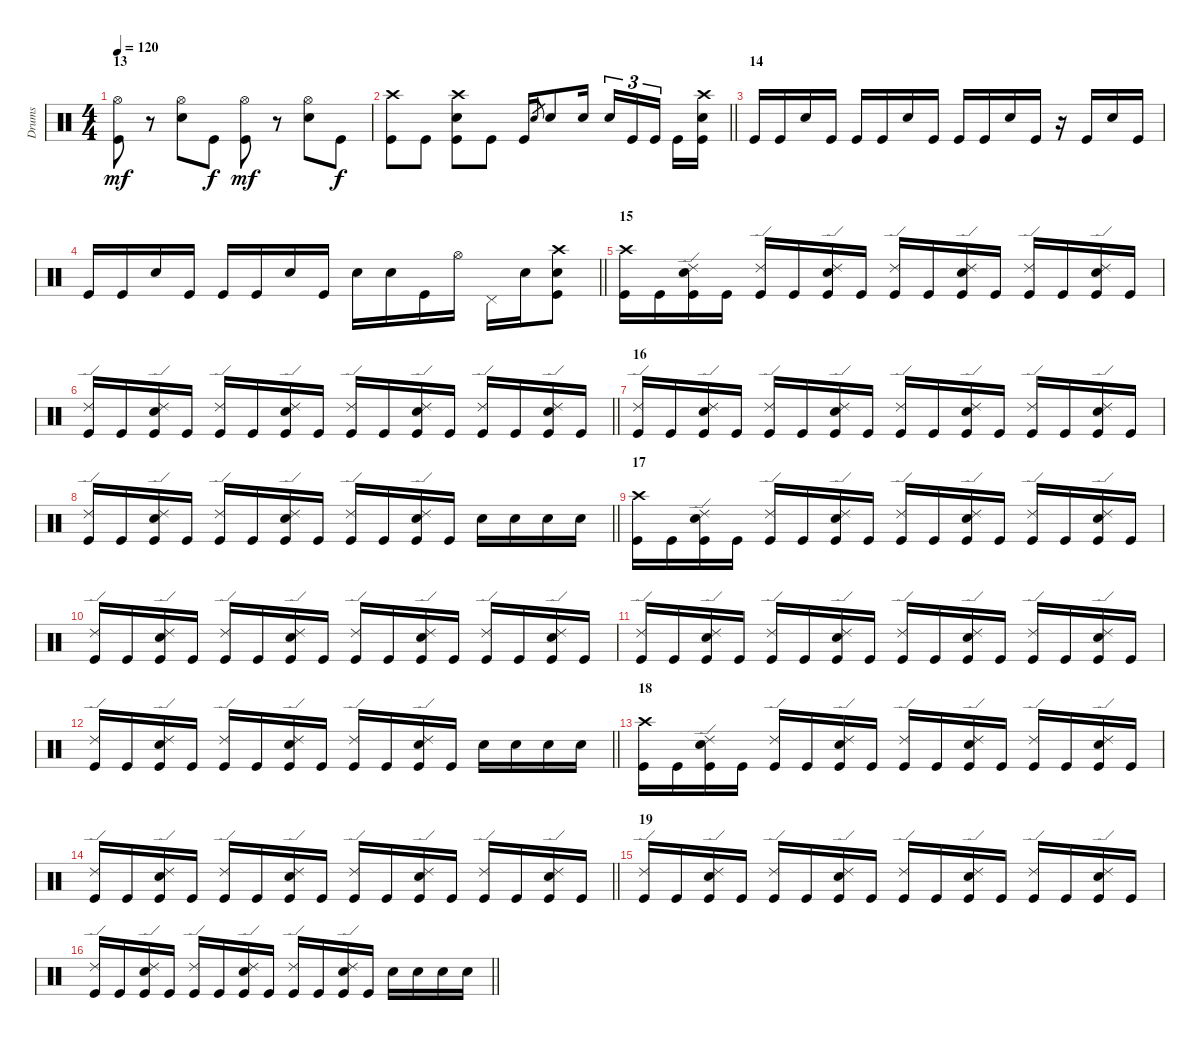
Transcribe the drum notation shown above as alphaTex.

\track ("Drums" "Drums") {instrument percussion}
\staff {score}
\articulation defaults
\ts (4 4)
\section ("" "13")
\tempo 120
\clef neutral
\ks c
("Hi-Hat (open)" "Kick (hit)").8{dy mf} r.8 ("Hi-Hat (open)" "Electric Snare (hit)").8 "Kick (hit)".8{dy f} ("Hi-Hat (open)" "Kick (hit)").8{dy mf} r.8 ("Hi-Hat (open)" "Electric Snare (hit)").8 "Kick (hit)".8{dy f} |
\barLineRight lightlight
("Crash high (hit)" "Kick (hit)").8 "Kick (hit)".8 ("Crash high (hit)" "Electric Snare (hit)" "Kick (hit)").8 "Kick (hit)".8 "Kick (hit)".16 "Electric Snare (hit)".8{gr} "Electric Snare (hit)".8 "Electric Snare (hit)".16 "Electric Snare (hit)".16{tu (3 2)} "Kick (hit)".16{tu (3 2)} "Kick (hit)".16{tu (3 2)} "Kick (hit)".16 ("Crash high (hit)" "Electric Snare (hit)" "Kick (hit)").16 |
\section ("" "14")
"Kick (hit)".16 "Kick (hit)".16 "Electric Snare (hit)".16 "Kick (hit)".16 "Kick (hit)".16 "Kick (hit)".16 "Electric Snare (hit)".16 "Kick (hit)".16 "Kick (hit)".16 "Kick (hit)".16 "Electric Snare (hit)".16 "Kick (hit)".16 r.16 "Kick (hit)".16 "Electric Snare (hit)".16 "Kick (hit)".16 |
\barLineRight lightlight "Kick (hit)".16 "Kick (hit)".16 "Electric Snare (hit)".16 "Kick (hit)".16 "Kick (hit)".16 "Kick (hit)".16 "Electric Snare (hit)".16 "Kick (hit)".16 "Electric Snare (hit)".16 "Electric Snare (hit)".16 "Kick (hit)".16 "Hi-Hat (open)".16 "Pedal Hi-Hat (hit)".16 "Electric Snare (hit)".16
("Crash high (hit)" "Electric Snare (hit)" "Kick (hit)").8 |
\section ("" "15")
("Crash high (hit)" "Kick (hit)").16 "Kick (hit)".16 ("Ride (edge) 2" "Electric Snare (hit)" "Kick (hit)").16 "Kick (hit)".16 ("Ride (edge) 2" "Kick (hit)").16 "Kick (hit)".16 ("Ride (edge) 2" "Electric Snare (hit)" "Kick (hit)").16 "Kick (hit)".16 ("Ride (edge) 2" "Kick (hit)").16 "Kick (hit)".16 ("Ride (edge) 2" "Electric Snare (hit)" "Kick (hit)").16 "Kick (hit)".16 ("Ride (edge) 2" "Kick (hit)").16 "Kick (hit)".16 ("Ride (edge) 2" "Electric Snare (hit)" "Kick (hit)").16 "Kick (hit)".16 |
\barLineRight lightlight
("Ride (edge) 2" "Kick (hit)").16 "Kick (hit)".16 ("Ride (edge) 2" "Electric Snare (hit)" "Kick (hit)").16 "Kick (hit)".16 ("Ride (edge) 2" "Kick (hit)").16 "Kick (hit)".16 ("Ride (edge) 2" "Electric Snare (hit)" "Kick (hit)").16 "Kick (hit)".16 ("Ride (edge) 2" "Kick (hit)").16 "Kick (hit)".16 ("Ride (edge) 2" "Electric Snare (hit)" "Kick (hit)").16 "Kick (hit)".16 ("Ride (edge) 2" "Kick (hit)").16 "Kick (hit)".16 ("Ride (edge) 2" "Electric Snare (hit)" "Kick (hit)").16 "Kick (hit)".16 |
\section ("" "16")
("Ride (edge) 2" "Kick (hit)").16 "Kick (hit)".16 ("Ride (edge) 2" "Electric Snare (hit)" "Kick (hit)").16 "Kick (hit)".16 ("Ride (edge) 2" "Kick (hit)").16 "Kick (hit)".16 ("Ride (edge) 2" "Electric Snare (hit)" "Kick (hit)").16 "Kick (hit)".16 ("Ride (edge) 2" "Kick (hit)").16 "Kick (hit)".16 ("Ride (edge) 2" "Electric Snare (hit)" "Kick (hit)").16 "Kick (hit)".16 ("Ride (edge) 2" "Kick (hit)").16 "Kick (hit)".16 ("Ride (edge) 2" "Electric Snare (hit)" "Kick (hit)").16 "Kick (hit)".16 |
\barLineRight lightlight
("Ride (edge) 2" "Kick (hit)").16 "Kick (hit)".16 ("Ride (edge) 2" "Electric Snare (hit)" "Kick (hit)").16 "Kick (hit)".16 ("Ride (edge) 2" "Kick (hit)").16 "Kick (hit)".16 ("Ride (edge) 2" "Electric Snare (hit)" "Kick (hit)").16 "Kick (hit)".16 ("Ride (edge) 2" "Kick (hit)").16 "Kick (hit)".16 ("Ride (edge) 2" "Electric Snare (hit)" "Kick (hit)").16 "Kick (hit)".16 "Electric Snare (hit)".16 "Electric Snare (hit)".16 "Electric Snare (hit)".16 "Electric Snare (hit)".16 |
\section ("" "17")
("Crash high (hit)" "Kick (hit)").16 "Kick (hit)".16 ("Ride (edge) 2" "Electric Snare (hit)" "Kick (hit)").16 "Kick (hit)".16 ("Ride (edge) 2" "Kick (hit)").16 "Kick (hit)".16 ("Ride (edge) 2" "Electric Snare (hit)" "Kick (hit)").16 "Kick (hit)".16 ("Ride (edge) 2" "Kick (hit)").16 "Kick (hit)".16 ("Ride (edge) 2" "Electric Snare (hit)" "Kick (hit)").16 "Kick (hit)".16 ("Ride (edge) 2" "Kick (hit)").16 "Kick (hit)".16 ("Ride (edge) 2" "Electric Snare (hit)" "Kick (hit)").16 "Kick (hit)".16 |
("Ride (edge) 2" "Kick (hit)").16 "Kick (hit)".16 ("Ride (edge) 2" "Electric Snare (hit)" "Kick (hit)").16 "Kick (hit)".16 ("Ride (edge) 2" "Kick (hit)").16 "Kick (hit)".16 ("Ride (edge) 2" "Electric Snare (hit)" "Kick (hit)").16 "Kick (hit)".16 ("Ride (edge) 2" "Kick (hit)").16 "Kick (hit)".16 ("Ride (edge) 2" "Electric Snare (hit)" "Kick (hit)").16 "Kick (hit)".16 ("Ride (edge) 2" "Kick (hit)").16 "Kick (hit)".16 ("Ride (edge) 2" "Electric Snare (hit)" "Kick (hit)").16 "Kick (hit)".16 |
("Ride (edge) 2" "Kick (hit)").16 "Kick (hit)".16 ("Ride (edge) 2" "Electric Snare (hit)" "Kick (hit)").16 "Kick (hit)".16 ("Ride (edge) 2" "Kick (hit)").16 "Kick (hit)".16 ("Ride (edge) 2" "Electric Snare (hit)" "Kick (hit)").16 "Kick (hit)".16 ("Ride (edge) 2" "Kick (hit)").16 "Kick (hit)".16 ("Ride (edge) 2" "Electric Snare (hit)" "Kick (hit)").16 "Kick (hit)".16 ("Ride (edge) 2" "Kick (hit)").16 "Kick (hit)".16 ("Ride (edge) 2" "Electric Snare (hit)" "Kick (hit)").16 "Kick (hit)".16 |
\barLineRight lightlight
("Ride (edge) 2" "Kick (hit)").16 "Kick (hit)".16 ("Ride (edge) 2" "Electric Snare (hit)" "Kick (hit)").16 "Kick (hit)".16 ("Ride (edge) 2" "Kick (hit)").16 "Kick (hit)".16 ("Ride (edge) 2" "Electric Snare (hit)" "Kick (hit)").16 "Kick (hit)".16 ("Ride (edge) 2" "Kick (hit)").16 "Kick (hit)".16 ("Ride (edge) 2" "Electric Snare (hit)" "Kick (hit)").16 "Kick (hit)".16 "Electric Snare (hit)".16 "Electric Snare (hit)".16 "Electric Snare (hit)".16 "Electric Snare (hit)".16 |
\section ("" "18")
("Crash high (hit)" "Kick (hit)").16 "Kick (hit)".16 ("Ride (edge) 2" "Electric Snare (hit)" "Kick (hit)").16 "Kick (hit)".16 ("Ride (edge) 2" "Kick (hit)").16 "Kick (hit)".16 ("Ride (edge) 2" "Electric Snare (hit)" "Kick (hit)").16 "Kick (hit)".16 ("Ride (edge) 2" "Kick (hit)").16 "Kick (hit)".16 ("Ride (edge) 2" "Electric Snare (hit)" "Kick (hit)").16 "Kick (hit)".16 ("Ride (edge) 2" "Kick (hit)").16 "Kick (hit)".16 ("Ride (edge) 2" "Electric Snare (hit)" "Kick (hit)").16 "Kick (hit)".16 |
\barLineRight lightlight
("Ride (edge) 2" "Kick (hit)").16 "Kick (hit)".16 ("Ride (edge) 2" "Electric Snare (hit)" "Kick (hit)").16 "Kick (hit)".16 ("Ride (edge) 2" "Kick (hit)").16 "Kick (hit)".16 ("Ride (edge) 2" "Electric Snare (hit)" "Kick (hit)").16 "Kick (hit)".16 ("Ride (edge) 2" "Kick (hit)").16 "Kick (hit)".16 ("Ride (edge) 2" "Electric Snare (hit)" "Kick (hit)").16 "Kick (hit)".16 ("Ride (edge) 2" "Kick (hit)").16 "Kick (hit)".16 ("Ride (edge) 2" "Electric Snare (hit)" "Kick (hit)").16 "Kick (hit)".16 |
\section ("" "19")
("Ride (edge) 2" "Kick (hit)").16 "Kick (hit)".16 ("Ride (edge) 2" "Electric Snare (hit)" "Kick (hit)").16 "Kick (hit)".16 ("Ride (edge) 2" "Kick (hit)").16 "Kick (hit)".16 ("Ride (edge) 2" "Electric Snare (hit)" "Kick (hit)").16 "Kick (hit)".16 ("Ride (edge) 2" "Kick (hit)").16 "Kick (hit)".16 ("Ride (edge) 2" "Electric Snare (hit)" "Kick (hit)").16 "Kick (hit)".16 ("Ride (edge) 2" "Kick (hit)").16 "Kick (hit)".16 ("Ride (edge) 2" "Electric Snare (hit)" "Kick (hit)").16 "Kick (hit)".16 |
\barLineRight lightlight
("Ride (edge) 2" "Kick (hit)").16 "Kick (hit)".16 ("Ride (edge) 2" "Electric Snare (hit)" "Kick (hit)").16 "Kick (hit)".16 ("Ride (edge) 2" "Kick (hit)").16 "Kick (hit)".16 ("Ride (edge) 2" "Electric Snare (hit)" "Kick (hit)").16 "Kick (hit)".16 ("Ride (edge) 2" "Kick (hit)").16 "Kick (hit)".16 ("Ride (edge) 2" "Electric Snare (hit)" "Kick (hit)").16 "Kick (hit)".16 "Electric Snare (hit)".16 "Electric Snare (hit)".16 "Electric Snare (hit)".16 "Electric Snare (hit)".16
